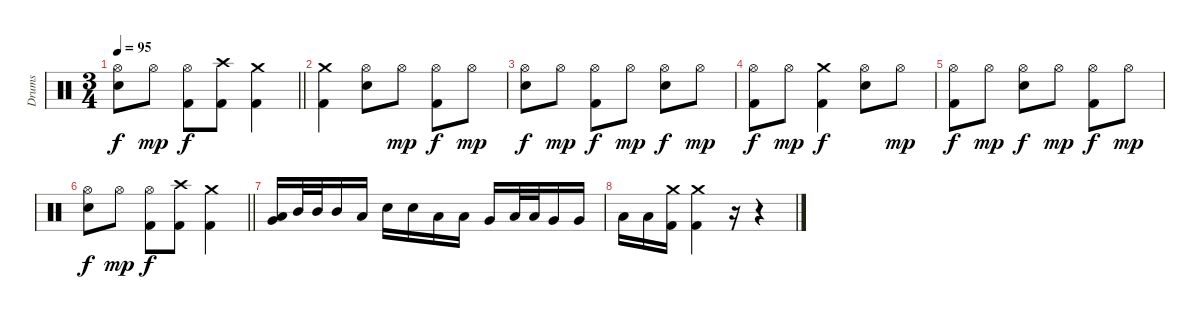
\track ("Drums" "Drums") {instrument percussion}
\staff {score}
\articulation defaults
\ts (3 4)
\tempo 95
\clef neutral
\barLineRight lightlight
\ks c
("Hi-Hat (open)" "Snare (hit) 2").8{dy f} "Hi-Hat (open)".8{dy mp} ("Hi-Hat (open)" "Kick (hit) 2").8{dy f} ("Crash high (hit)" "Kick (hit) 2").8 ("Crash medium (hit)" "Kick (hit) 2").4 |
("Crash medium (hit)" "Kick (hit) 2").4 ("Hi-Hat (open)" "Snare (hit) 2").8 "Hi-Hat (open)".8{dy mp} ("Hi-Hat (open)" "Kick (hit) 2").8{dy f} "Hi-Hat (open)".8{dy mp} |
("Hi-Hat (open)" "Snare (hit) 2").8{dy f} "Hi-Hat (open)".8{dy mp} ("Hi-Hat (open)" "Kick (hit) 2").8{dy f} "Hi-Hat (open)".8{dy mp} ("Hi-Hat (open)" "Snare (hit) 2").8{dy f} "Hi-Hat (open)".8{dy mp} |
("Hi-Hat (open)" "Kick (hit) 2").8{dy f} "Hi-Hat (open)".8{dy mp} ("Crash medium (hit)" "Kick (hit) 2").4{dy f} ("Hi-Hat (open)" "Snare (hit) 2").8 "Hi-Hat (open)".8{dy mp} |
("Hi-Hat (open)" "Kick (hit) 2").8{dy f} "Hi-Hat (open)".8{dy mp} ("Hi-Hat (open)" "Snare (hit) 2").8{dy f} "Hi-Hat (open)".8{dy mp} ("Hi-Hat (open)" "Kick (hit) 2").8{dy f} "Hi-Hat (open)".8{dy mp} |
\barLineRight lightlight
("Hi-Hat (open)" "Snare (hit) 2").8{dy f} "Hi-Hat (open)".8{dy mp} ("Hi-Hat (open)" "Kick (hit) 2").8{dy f} ("Crash high (hit)" "Kick (hit) 2").8 ("Crash medium (hit)" "Kick (hit) 2").4 |
("Low Tom (hit)" "Very Low Tom (hit)").16 "Mid Tom (hit)".32 "Mid Tom (hit)".32 "Mid Tom (hit)".16 "Low Tom (hit)".16 "Snare (hit) 2".16 "Snare (hit) 2".16 "Low Tom (hit)".16 "Low Tom (hit)".16 "Very Low Tom (hit)".16 "Low Tom (hit)".32 "Low Tom (hit)".32 "Very Low Tom (hit)".16 "Very Low Tom (hit)".16 |
"Low Floor Tom (hit)".16 "Low Floor Tom (hit)".16 ("Crash medium (hit)" "Kick (hit) 2").16 ("Crash medium (hit)" "Kick (hit) 2").4 r.16 r.4
